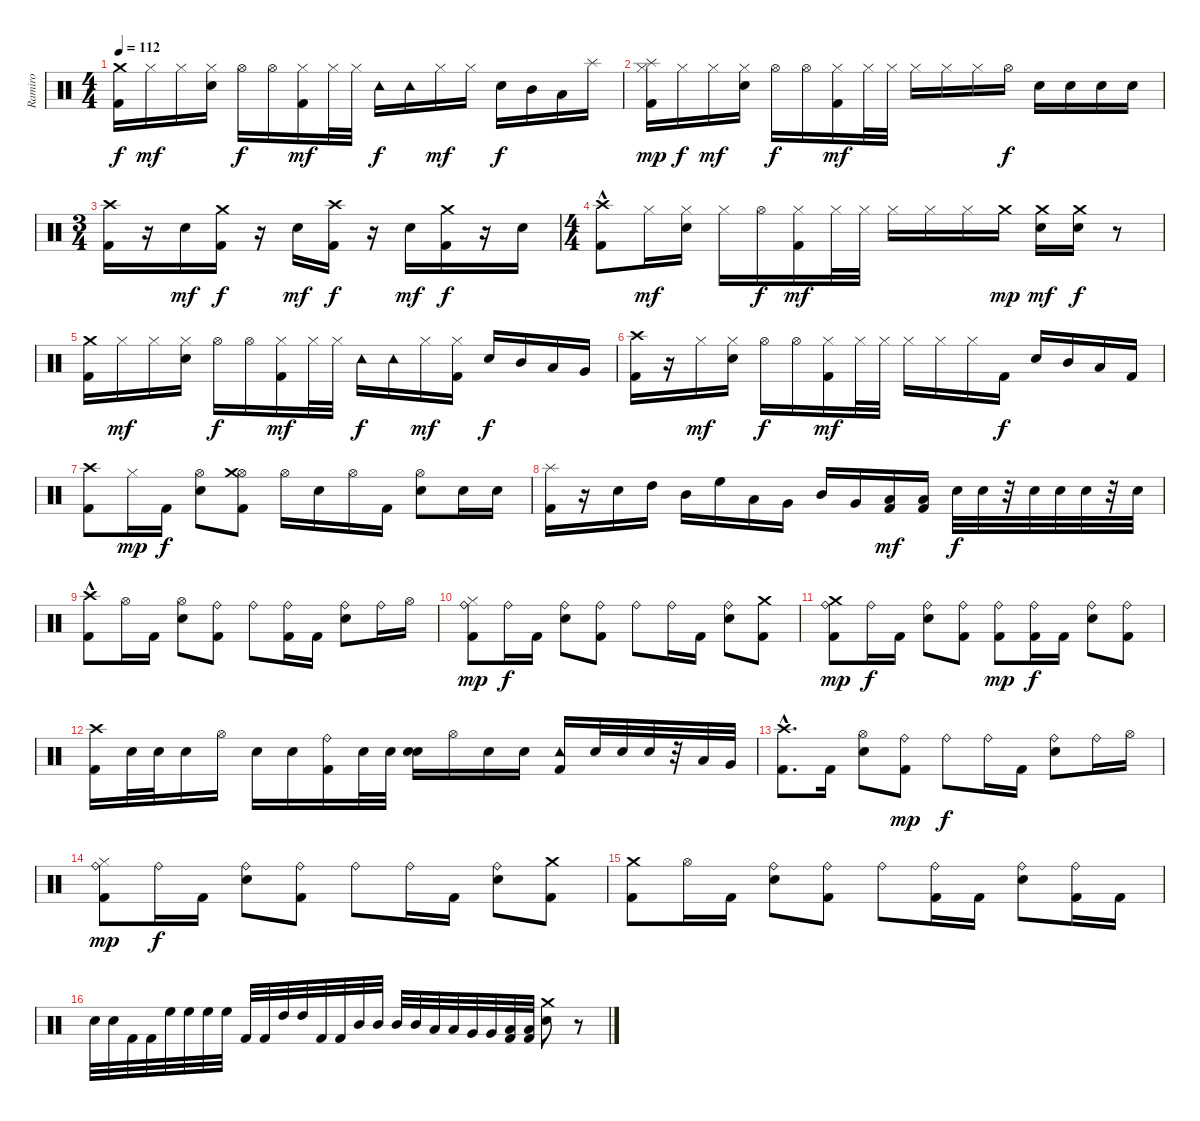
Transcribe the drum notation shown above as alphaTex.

\track ("Ramiro" "Ramiro") {instrument percussion}
\staff {score}
\articulation defaults
\ts (4 4)
\tempo 112
\clef neutral
\ks c
("Kick (hit) 2" "Crash medium (hit)").16{dy f} "Hi-Hat (closed)".16{dy mf} "Hi-Hat (closed)".16 ("Electric Snare (hit)" "Hi-Hat (closed)").16 "Hi-Hat (open)".16{dy f} "Hi-Hat (open)".16 ("Kick (hit) 2" "Hi-Hat (closed)").16{dy mf} "Hi-Hat (closed)".32 "Hi-Hat (closed)".32 "Tambourine (hit)".16{dy f} "Tambourine (hit)".16 "Hi-Hat (closed)".16{dy mf} "Hi-Hat (closed)".16 "Electric Snare (hit)".16{dy f} "Mid Tom (hit)".16 "Low Tom (hit)".16 "Splash (hit)".16 |
("Kick (hit) 2" "Splash (hit)" "Hi-Hat (closed)").16{dy mp} "Hi-Hat (closed)".16{dy f} "Hi-Hat (closed)".16{dy mf} ("Electric Snare (hit)" "Hi-Hat (closed)").16 "Hi-Hat (open)".16{dy f} "Hi-Hat (open)".16 ("Kick (hit) 2" "Hi-Hat (closed)").16{dy mf} "Hi-Hat (closed)".32 "Hi-Hat (closed)".32 "Hi-Hat (closed)".16 "Hi-Hat (closed)".16 "Hi-Hat (closed)".16 "Hi-Hat (open)".16{dy f} "Electric Snare (hit)".16 "Electric Snare (hit)".16 "Electric Snare (hit)".16 "Electric Snare (hit)".16 |
\ts (3 4)
("Kick (hit) 2" "Crash high (hit)").16 r.16 "Electric Snare (hit)".16{dy mf} ("Kick (hit) 2" "Crash medium (hit)").16{dy f} r.16 "Electric Snare (hit)".16{dy mf} ("Kick (hit) 2" "Crash high (hit)").16{dy f} r.16 "Electric Snare (hit)".16{dy mf} ("Kick (hit) 2" "Crash medium (hit)").16{dy f} r.16 "Electric Snare (hit)".16 |
\ts (4 4)
("Kick (hit) 2"{hac} "Crash high (hit)").8 "Hi-Hat (closed)".16{dy mf} ("Electric Snare (hit)" "Hi-Hat (closed)").16 "Hi-Hat (closed)".16 "Hi-Hat (open)".16{dy f} ("Kick (hit) 2" "Hi-Hat (closed)").16{dy mf} "Hi-Hat (closed)".32 "Hi-Hat (closed)".32 "Hi-Hat (closed)".16 "Hi-Hat (closed)".16 "Hi-Hat (closed)".16 "Crash medium (hit)".16{dy mp} ("Electric Snare (hit)" "Crash medium (hit)").16{dy mf} ("Electric Snare (hit)" "Crash medium (hit)").16{dy f} r.8 |
("Crash medium (hit)" "Kick (hit) 2").16 "Hi-Hat (closed)".16{dy mf} "Hi-Hat (closed)".16 ("Electric Snare (hit)" "Hi-Hat (closed)").16 "Hi-Hat (open)".16{dy f} "Hi-Hat (open)".16 ("Kick (hit) 2" "Hi-Hat (closed)").16{dy mf} "Hi-Hat (closed)".32 "Hi-Hat (closed)".32 "Tambourine (hit)".16{dy f} "Tambourine (hit)".16 "Hi-Hat (closed)".16{dy mf} ("Kick (hit) 2" "Hi-Hat (closed)").16 "Electric Snare (hit)".16{dy f} "Mid Tom (hit)".16 "Low Tom (hit)".16 "Very Low Tom (hit)".16 |
("Crash high (hit)" "Kick (hit) 2").16 r.16 "Hi-Hat (closed)".16{dy mf} ("Electric Snare (hit)" "Hi-Hat (closed)").16 "Hi-Hat (open)".16{dy f} "Hi-Hat (open)".16 ("Kick (hit) 2" "Hi-Hat (closed)").16{dy mf} "Hi-Hat (closed)".32 "Hi-Hat (closed)".32 "Hi-Hat (closed)".16 "Hi-Hat (closed)".16 "Hi-Hat (closed)".16 "Kick (hit) 2".16{dy f} "Electric Snare (hit)".16 "Mid Tom (hit)".16 "Low Tom (hit)".16 "Kick (hit) 2".16 |
("Crash high (hit)" "Kick (hit) 2").8 "Hi-Hat (closed)".16{dy mp} "Kick (hit) 2".16{dy f} ("Electric Snare (hit)" "Hi-Hat (open)").8 ("Hi-Hat (open)" "Kick (hit) 2" "Crash medium (hit)").8 "Hi-Hat (open)".16 "Electric Snare (hit)".16 "Hi-Hat (open)".16 "Kick (hit) 2".16 ("Electric Snare (hit)" "Hi-Hat (open)").8 "Electric Snare (hit)".16 "Electric Snare (hit)".16 |
("Splash (hit)" "Kick (hit) 2").16 r.16 "Electric Snare (hit)".16 "High Tom (hit)".16 "Mid Tom (hit)".16 "High Floor Tom (hit)".16 "Low Tom (hit)".16 "Very Low Tom (hit)".16 "Mid Tom (hit)".16 "Very Low Tom (hit)".16 ("Kick (hit) 2" "Low Floor Tom (hit)").16{dy mf} ("Kick (hit) 2" "Low Floor Tom (hit)").16 "Electric Snare (hit)".32{dy f} "Electric Snare (hit)".32 r.32 "Electric Snare (hit)".32 "Electric Snare (hit)".32 "Electric Snare (hit)".32 r.32 "Electric Snare (hit)".32 |
("Crash high (hit)" "Kick (hit) 2"{hac}).8 "Hi-Hat (open)".16 "Kick (hit) 2".16 ("Electric Snare (hit)" "Hi-Hat (open)").8 ("Kick (hit) 2" "Ride (bell)").8 "Ride (bell)".8 ("Kick (hit) 2" "Ride (bell)").16 "Kick (hit) 2".16 ("Electric Snare (hit)" "Ride (bell)").8 "Ride (bell)".16 "Hi-Hat (open)".16 |
("Ride (bell)" "Hi-Hat (closed)" "Kick (hit) 2").8{dy mp} "Ride (bell)".16{dy f} "Kick (hit) 2".16 ("Electric Snare (hit)" "Ride (bell)").8 ("Kick (hit) 2" "Ride (bell)").8 "Ride (bell)".8 "Ride (bell)".16 "Kick (hit) 2".16 ("Ride (bell)" "Electric Snare (hit)").8 ("Kick (hit) 2" "Crash medium (hit)").8 |
("Kick (hit) 2" "Ride (bell)" "Crash medium (hit)").8{dy mp} "Ride (bell)".16{dy f} "Kick (hit) 2".16 ("Electric Snare (hit)" "Ride (bell)").8 ("Ride (bell)" "Kick (hit) 2").8 ("Ride (bell)" "Kick (hit) 2").8{dy mp} ("Ride (bell)" "Kick (hit) 2").16{dy f} "Kick (hit) 2".16 ("Ride (bell)" "Electric Snare (hit)").8 ("Kick (hit) 2" "Ride (bell)").8 |
("Crash high (hit)" "Kick (hit) 2").16 "Electric Snare (hit)".32 "Electric Snare (hit)".32 "Electric Snare (hit)".16 "Hi-Hat (open)".16 "Electric Snare (hit)".16 "Electric Snare (hit)".16 ("Kick (hit) 2" "Ride (bell)").16 "Electric Snare (hit)".32 "Electric Snare (hit)".32 ("Electric Snare (hit)" "Electric Snare (hit)").16 "Hi-Hat (open)".16 "Electric Snare (hit)".16 "Electric Snare (hit)".16 ("Kick (hit) 2" "Tambourine (hit)").16 "Electric Snare (hit)".32 "Electric Snare (hit)".32 "Electric Snare (hit)".32 r.32 "Low Tom (hit)".32 "Very Low Tom (hit)".32 |
("Kick (hit) 2"{hac} "Crash high (hit)").8{d} "Kick (hit) 2".16 ("Electric Snare (hit)" "Hi-Hat (open)").8 ("Kick (hit) 2" "Ride (bell)").8{dy mp} "Ride (bell)".8{dy f} "Ride (bell)".16 "Kick (hit) 2".16 ("Electric Snare (hit)" "Ride (bell)").8 "Ride (bell)".16 "Hi-Hat (open)".16 |
("Ride (bell)" "Hi-Hat (closed)" "Kick (hit) 2").8{dy mp} "Ride (bell)".16{dy f} "Kick (hit) 2".16 ("Electric Snare (hit)" "Ride (bell)").8 ("Kick (hit) 2" "Ride (bell)").8 "Ride (bell)".8 "Ride (bell)".16 "Kick (hit) 2".16 ("Ride (bell)" "Electric Snare (hit)").8 ("Kick (hit) 2" "Crash medium (hit)").8 |
("Kick (hit) 2" "Crash medium (hit)").8 "Hi-Hat (open)".16 "Kick (hit) 2".16 ("Electric Snare (hit)" "Ride (bell)").8 ("Ride (bell)" "Kick (hit) 2").8 "Ride (bell)".8 ("Kick (hit) 2" "Ride (bell)").16 "Kick (hit) 2".16 ("Ride (bell)" "Electric Snare (hit)").8 ("Ride (bell)" "Kick (hit) 2").16 "Kick (hit) 2".16 |
"Electric Snare (hit)".32 "Electric Snare (hit)".32 "Kick (hit) 2".32 "Kick (hit) 2".32 "High Floor Tom (hit)".32 "High Floor Tom (hit)".32 "High Floor Tom (hit)".32 "High Floor Tom (hit)".32 "Kick (hit) 2".32 "Kick (hit) 2".32 "High Tom (hit)".32 "High Tom (hit)".32 "Kick (hit) 2".32 "Kick (hit) 2".32 "Mid Tom (hit)".32 "Mid Tom (hit)".32 "Mid Tom (hit)".32 "Mid Tom (hit)".32 "Low Tom (hit)".32 "Low Tom (hit)".32 "Very Low Tom (hit)".32 "Very Low Tom (hit)".32 ("Low Floor Tom (hit)" "Kick (hit) 2").32 ("Low Floor Tom (hit)" "Kick (hit) 2").32 ("Electric Snare (hit)" "Crash medium (hit)").8 r.8
